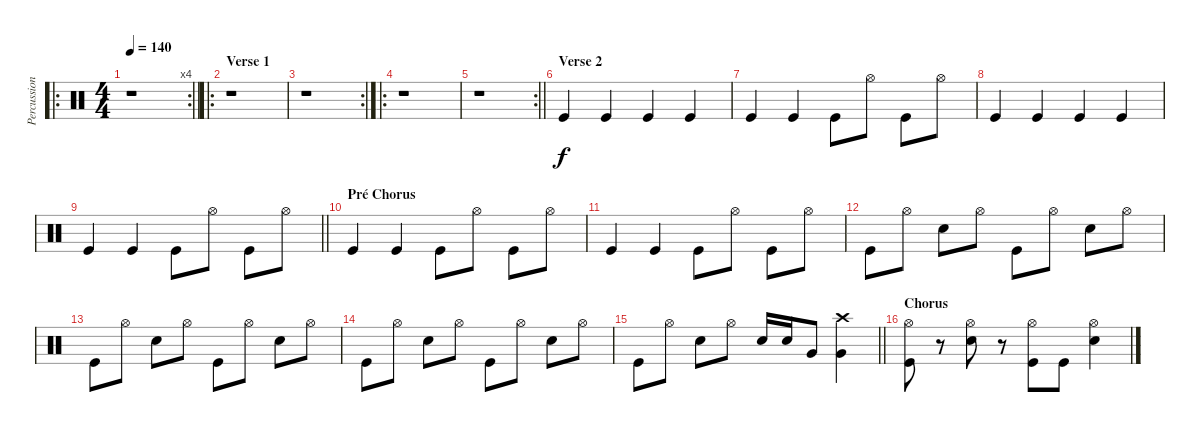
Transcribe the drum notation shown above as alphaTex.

\track ("Percussions" "Percussion") {instrument percussion}
\staff {score}
\articulation defaults
\ro
\rc 4
\ts (4 4)
\tempo 140
\clef neutral
\barLineRight lightlight
\ks c
r.1{dy f} |
\ro
\section ("" "Verse 1")
r.1 |
\rc 2
r.1 |
\ro
r.1 |
\rc 2
\barLineRight lightlight
r.1 |
\section ("" "Verse 2")
"Kick (hit)".4 "Kick (hit)".4 "Kick (hit)".4 "Kick (hit)".4 |
"Kick (hit)".4 "Kick (hit)".4 "Kick (hit)".8 "Hi-Hat (open)".8 "Kick (hit)".8 "Hi-Hat (open)".8 |
"Kick (hit)".4 "Kick (hit)".4 "Kick (hit)".4 "Kick (hit)".4 |
\barLineRight lightlight "Kick (hit)".4 "Kick (hit)".4 "Kick (hit)".8 "Hi-Hat (open)".8 "Kick (hit)".8 "Hi-Hat (open)".8
|
\section ("" "Pré Chorus")
"Kick (hit)".4 "Kick (hit)".4 "Kick (hit)".8 "Hi-Hat (open)".8 "Kick (hit)".8 "Hi-Hat (open)".8 |
"Kick (hit)".4 "Kick (hit)".4 "Kick (hit)".8 "Hi-Hat (open)".8 "Kick (hit)".8 "Hi-Hat (open)".8 |
"Kick (hit)".8 "Hi-Hat (open)".8 "Snare (hit) 2".8 "Hi-Hat (open)".8 "Kick (hit)".8 "Hi-Hat (open)".8 "Snare (hit) 2".8 "Hi-Hat (open)".8 |
"Kick (hit)".8 "Hi-Hat (open)".8 "Snare (hit) 2".8 "Hi-Hat (open)".8 "Kick (hit)".8 "Hi-Hat (open)".8 "Snare (hit) 2".8 "Hi-Hat (open)".8 |
"Kick (hit)".8 "Hi-Hat (open)".8 "Snare (hit) 2".8 "Hi-Hat (open)".8 "Kick (hit)".8 "Hi-Hat (open)".8 "Snare (hit) 2".8 "Hi-Hat (open)".8 |
\barLineRight lightlight "Kick (hit)".8 "Hi-Hat (open)".8 "Snare (hit) 2".8 "Hi-Hat (open)".8 "Snare (hit) 2".16 "Snare (hit) 2".16 "Very Low Tom (hit)".8
("Crash high (hit)" "Very Low Tom (hit)").4 |
\section ("" "Chorus")
("Hi-Hat (open)" "Kick (hit)").8 r.8 ("Hi-Hat (open)" "Snare (hit) 2").8 r.8 ("Hi-Hat (open)" "Kick (hit)").8 "Kick (hit)".8 ("Hi-Hat (open)" "Snare (hit) 2").4
